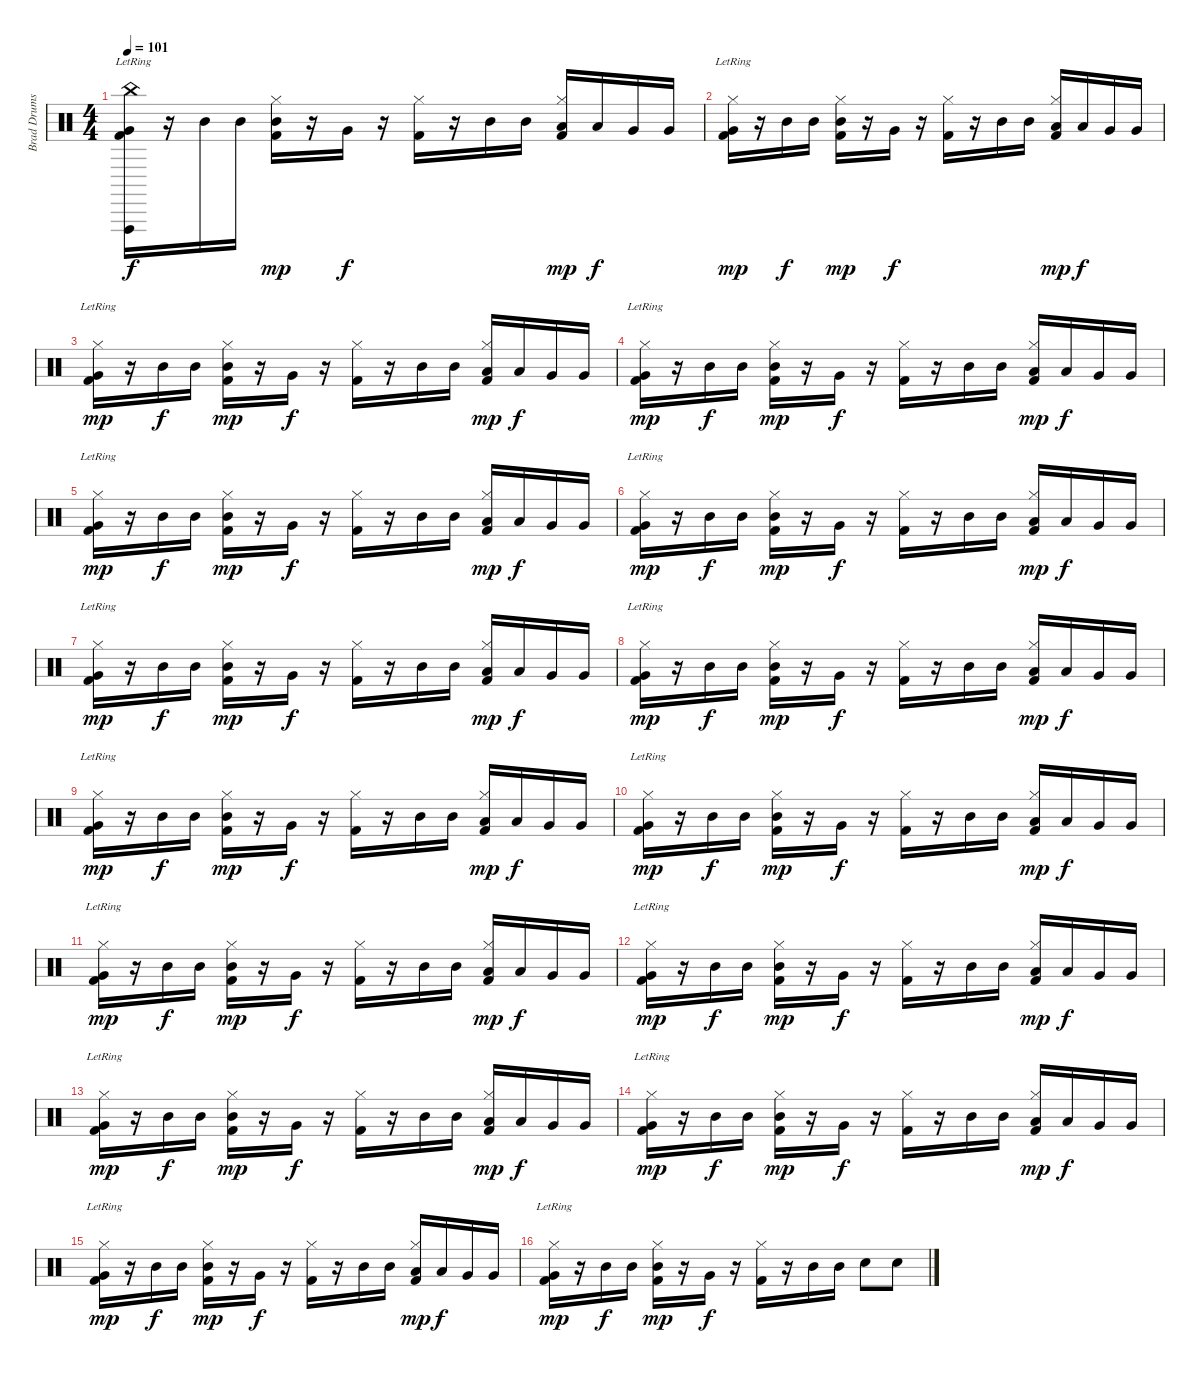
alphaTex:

\track ("Brad Drums" "Brad Drums") {instrument percussion}
\staff {score}
\articulation defaults
\ts (4 4)
\tempo 101
\clef neutral
\ks c
("China (hit)"{lr} "Vibraslap (hit)"{lr} "Very Low Tom (hit)" "Kick (hit) 2").16{dy f} r.16 "Mid Tom (hit)".16 "Mid Tom (hit)".16 ("Hi-Hat (closed)" "Mid Tom (hit)" "Kick (hit) 2").16{dy mp} r.16 "Very Low Tom (hit)".16{dy f} r.16 ("Hi-Hat (closed)" "Kick (hit) 2").16 r.16 "Mid Tom (hit)".16 "Mid Tom (hit)".16 ("Hi-Hat (closed)" "Low Tom (hit)" "Kick (hit) 2").16{dy mp} "Low Tom (hit)".16{dy f} "Very Low Tom (hit)".16 "Very Low Tom (hit)".16 |
("Hi-Hat (closed)"{lr} "Very Low Tom (hit)" "Kick (hit) 2").16{dy mp} r.16 "Mid Tom (hit)".16{dy f} "Mid Tom (hit)".16 ("Hi-Hat (closed)" "Mid Tom (hit)" "Kick (hit) 2").16{dy mp} r.16 "Very Low Tom (hit)".16{dy f} r.16 ("Hi-Hat (closed)" "Kick (hit) 2").16 r.16 "Mid Tom (hit)".16 "Mid Tom (hit)".16 ("Hi-Hat (closed)" "Low Tom (hit)" "Kick (hit) 2").16{dy mp} "Low Tom (hit)".16{dy f} "Very Low Tom (hit)".16 "Very Low Tom (hit)".16 |
("Hi-Hat (closed)"{lr} "Very Low Tom (hit)" "Kick (hit) 2").16{dy mp} r.16 "Mid Tom (hit)".16{dy f} "Mid Tom (hit)".16 ("Hi-Hat (closed)" "Mid Tom (hit)" "Kick (hit) 2").16{dy mp} r.16 "Very Low Tom (hit)".16{dy f} r.16 ("Hi-Hat (closed)" "Kick (hit) 2").16 r.16 "Mid Tom (hit)".16 "Mid Tom (hit)".16 ("Hi-Hat (closed)" "Low Tom (hit)" "Kick (hit) 2").16{dy mp} "Low Tom (hit)".16{dy f} "Very Low Tom (hit)".16 "Very Low Tom (hit)".16 |
("Hi-Hat (closed)"{lr} "Very Low Tom (hit)" "Kick (hit) 2").16{dy mp} r.16 "Mid Tom (hit)".16{dy f} "Mid Tom (hit)".16 ("Hi-Hat (closed)" "Mid Tom (hit)" "Kick (hit) 2").16{dy mp} r.16 "Very Low Tom (hit)".16{dy f} r.16 ("Hi-Hat (closed)" "Kick (hit) 2").16 r.16 "Mid Tom (hit)".16 "Mid Tom (hit)".16 ("Hi-Hat (closed)" "Low Tom (hit)" "Kick (hit) 2").16{dy mp} "Low Tom (hit)".16{dy f} "Very Low Tom (hit)".16 "Very Low Tom (hit)".16 |
("Hi-Hat (closed)"{lr} "Very Low Tom (hit)" "Kick (hit) 2").16{dy mp} r.16 "Mid Tom (hit)".16{dy f} "Mid Tom (hit)".16 ("Hi-Hat (closed)" "Mid Tom (hit)" "Kick (hit) 2").16{dy mp} r.16 "Very Low Tom (hit)".16{dy f} r.16 ("Hi-Hat (closed)" "Kick (hit) 2").16 r.16 "Mid Tom (hit)".16 "Mid Tom (hit)".16 ("Hi-Hat (closed)" "Low Tom (hit)" "Kick (hit) 2").16{dy mp} "Low Tom (hit)".16{dy f} "Very Low Tom (hit)".16 "Very Low Tom (hit)".16 |
("Hi-Hat (closed)"{lr} "Very Low Tom (hit)" "Kick (hit) 2").16{dy mp} r.16 "Mid Tom (hit)".16{dy f} "Mid Tom (hit)".16 ("Hi-Hat (closed)" "Mid Tom (hit)" "Kick (hit) 2").16{dy mp} r.16 "Very Low Tom (hit)".16{dy f} r.16 ("Hi-Hat (closed)" "Kick (hit) 2").16 r.16 "Mid Tom (hit)".16 "Mid Tom (hit)".16 ("Hi-Hat (closed)" "Low Tom (hit)" "Kick (hit) 2").16{dy mp} "Low Tom (hit)".16{dy f} "Very Low Tom (hit)".16 "Very Low Tom (hit)".16 |
("Hi-Hat (closed)"{lr} "Very Low Tom (hit)" "Kick (hit) 2").16{dy mp} r.16 "Mid Tom (hit)".16{dy f} "Mid Tom (hit)".16 ("Hi-Hat (closed)" "Mid Tom (hit)" "Kick (hit) 2").16{dy mp} r.16 "Very Low Tom (hit)".16{dy f} r.16 ("Hi-Hat (closed)" "Kick (hit) 2").16 r.16 "Mid Tom (hit)".16 "Mid Tom (hit)".16 ("Hi-Hat (closed)" "Low Tom (hit)" "Kick (hit) 2").16{dy mp} "Low Tom (hit)".16{dy f} "Very Low Tom (hit)".16 "Very Low Tom (hit)".16 |
("Hi-Hat (closed)"{lr} "Very Low Tom (hit)" "Kick (hit) 2").16{dy mp} r.16 "Mid Tom (hit)".16{dy f} "Mid Tom (hit)".16 ("Hi-Hat (closed)" "Mid Tom (hit)" "Kick (hit) 2").16{dy mp} r.16 "Very Low Tom (hit)".16{dy f} r.16 ("Hi-Hat (closed)" "Kick (hit) 2").16 r.16 "Mid Tom (hit)".16 "Mid Tom (hit)".16 ("Hi-Hat (closed)" "Low Tom (hit)" "Kick (hit) 2").16{dy mp} "Low Tom (hit)".16{dy f} "Very Low Tom (hit)".16 "Very Low Tom (hit)".16 |
("Hi-Hat (closed)"{lr} "Very Low Tom (hit)" "Kick (hit) 2").16{dy mp} r.16 "Mid Tom (hit)".16{dy f} "Mid Tom (hit)".16 ("Hi-Hat (closed)" "Mid Tom (hit)" "Kick (hit) 2").16{dy mp} r.16 "Very Low Tom (hit)".16{dy f} r.16 ("Hi-Hat (closed)" "Kick (hit) 2").16 r.16 "Mid Tom (hit)".16 "Mid Tom (hit)".16 ("Hi-Hat (closed)" "Low Tom (hit)" "Kick (hit) 2").16{dy mp} "Low Tom (hit)".16{dy f} "Very Low Tom (hit)".16 "Very Low Tom (hit)".16 |
("Hi-Hat (closed)"{lr} "Very Low Tom (hit)" "Kick (hit) 2").16{dy mp} r.16 "Mid Tom (hit)".16{dy f} "Mid Tom (hit)".16 ("Hi-Hat (closed)" "Mid Tom (hit)" "Kick (hit) 2").16{dy mp} r.16 "Very Low Tom (hit)".16{dy f} r.16 ("Hi-Hat (closed)" "Kick (hit) 2").16 r.16 "Mid Tom (hit)".16 "Mid Tom (hit)".16 ("Hi-Hat (closed)" "Low Tom (hit)" "Kick (hit) 2").16{dy mp} "Low Tom (hit)".16{dy f} "Very Low Tom (hit)".16 "Very Low Tom (hit)".16 |
("Hi-Hat (closed)"{lr} "Very Low Tom (hit)" "Kick (hit) 2").16{dy mp} r.16 "Mid Tom (hit)".16{dy f} "Mid Tom (hit)".16 ("Hi-Hat (closed)" "Mid Tom (hit)" "Kick (hit) 2").16{dy mp} r.16 "Very Low Tom (hit)".16{dy f} r.16 ("Hi-Hat (closed)" "Kick (hit) 2").16 r.16 "Mid Tom (hit)".16 "Mid Tom (hit)".16 ("Hi-Hat (closed)" "Low Tom (hit)" "Kick (hit) 2").16{dy mp} "Low Tom (hit)".16{dy f} "Very Low Tom (hit)".16 "Very Low Tom (hit)".16 |
("Hi-Hat (closed)"{lr} "Very Low Tom (hit)" "Kick (hit) 2").16{dy mp} r.16 "Mid Tom (hit)".16{dy f} "Mid Tom (hit)".16 ("Hi-Hat (closed)" "Mid Tom (hit)" "Kick (hit) 2").16{dy mp} r.16 "Very Low Tom (hit)".16{dy f} r.16 ("Hi-Hat (closed)" "Kick (hit) 2").16 r.16 "Mid Tom (hit)".16 "Mid Tom (hit)".16 ("Hi-Hat (closed)" "Low Tom (hit)" "Kick (hit) 2").16{dy mp} "Low Tom (hit)".16{dy f} "Very Low Tom (hit)".16 "Very Low Tom (hit)".16 |
("Hi-Hat (closed)"{lr} "Very Low Tom (hit)" "Kick (hit) 2").16{dy mp} r.16 "Mid Tom (hit)".16{dy f} "Mid Tom (hit)".16 ("Hi-Hat (closed)" "Mid Tom (hit)" "Kick (hit) 2").16{dy mp} r.16 "Very Low Tom (hit)".16{dy f} r.16 ("Hi-Hat (closed)" "Kick (hit) 2").16 r.16 "Mid Tom (hit)".16 "Mid Tom (hit)".16 ("Hi-Hat (closed)" "Low Tom (hit)" "Kick (hit) 2").16{dy mp} "Low Tom (hit)".16{dy f} "Very Low Tom (hit)".16 "Very Low Tom (hit)".16 |
("Hi-Hat (closed)"{lr} "Very Low Tom (hit)" "Kick (hit) 2").16{dy mp} r.16 "Mid Tom (hit)".16{dy f} "Mid Tom (hit)".16 ("Hi-Hat (closed)" "Mid Tom (hit)" "Kick (hit) 2").16{dy mp} r.16 "Very Low Tom (hit)".16{dy f} r.16 ("Hi-Hat (closed)" "Kick (hit) 2").16 r.16 "Mid Tom (hit)".16 "Mid Tom (hit)".16 ("Hi-Hat (closed)" "Low Tom (hit)" "Kick (hit) 2").16{dy mp} "Low Tom (hit)".16{dy f} "Very Low Tom (hit)".16 "Very Low Tom (hit)".16 |
("Hi-Hat (closed)"{lr} "Very Low Tom (hit)" "Kick (hit) 2").16{dy mp} r.16 "Mid Tom (hit)".16{dy f} "Mid Tom (hit)".16 ("Hi-Hat (closed)" "Mid Tom (hit)" "Kick (hit) 2").16{dy mp} r.16 "Very Low Tom (hit)".16{dy f} r.16 ("Hi-Hat (closed)" "Kick (hit) 2").16 r.16 "Mid Tom (hit)".16 "Mid Tom (hit)".16 ("Hi-Hat (closed)" "Low Tom (hit)" "Kick (hit) 2").16{dy mp} "Low Tom (hit)".16{dy f} "Very Low Tom (hit)".16 "Very Low Tom (hit)".16 |
("Hi-Hat (closed)"{lr} "Very Low Tom (hit)" "Kick (hit) 2").16{dy mp} r.16 "Mid Tom (hit)".16{dy f} "Mid Tom (hit)".16 ("Hi-Hat (closed)" "Mid Tom (hit)" "Kick (hit) 2").16{dy mp} r.16 "Very Low Tom (hit)".16{dy f} r.16 ("Hi-Hat (closed)" "Kick (hit) 2").16 r.16 "Mid Tom (hit)".16 "Mid Tom (hit)".16 "Electric Snare (hit)".8 "Electric Snare (hit)".8
